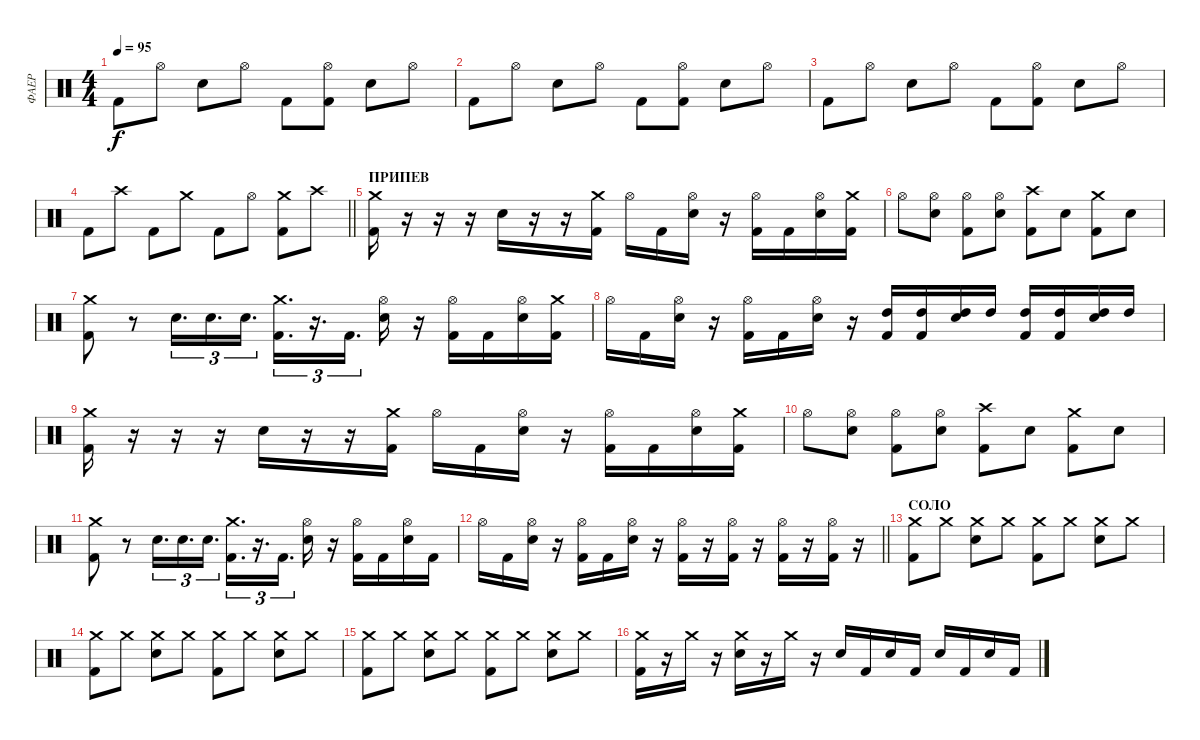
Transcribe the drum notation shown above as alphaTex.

\track ("ФАЕР" "ФАЕР") {instrument percussion}
\staff {score}
\articulation defaults
\ts (4 4)
\tempo 95
\clef neutral
\ks c "Kick (hit) 2".8{dy f} "Hi-Hat (open)".8 "Electric Snare (hit)".8 "Hi-Hat (open)".8 "Kick (hit) 2".8
("Hi-Hat (open)" "Kick (hit) 2").8 "Electric Snare (hit)".8 "Hi-Hat (open)".8 |
"Kick (hit) 2".8 "Hi-Hat (open)".8 "Electric Snare (hit)".8 "Hi-Hat (open)".8 "Kick (hit) 2".8 ("Hi-Hat (open)" "Kick (hit) 2").8 "Electric Snare (hit)".8 "Hi-Hat (open)".8 |
"Kick (hit) 2".8 "Hi-Hat (open)".8 "Electric Snare (hit)".8 "Hi-Hat (open)".8 "Kick (hit) 2".8 ("Hi-Hat (open)" "Kick (hit) 2").8 "Electric Snare (hit)".8 "Hi-Hat (open)".8 |
\barLineRight lightlight "Kick (hit) 2".8 "Crash high (hit)".8 "Kick (hit) 2".8 "Crash medium (hit)".8 "Kick (hit) 2".8 "Hi-Hat (open)".8
("Crash medium (hit)" "Kick (hit) 2").8 "Crash high (hit)".8 |
\section ("" "ПРИПЕВ")
("Crash medium (hit)" "Kick (hit) 2").16 r.16 r.16 r.16 "Electric Snare (hit)".16 r.16 r.16 ("Crash medium (hit)" "Kick (hit) 2").16 "Hi-Hat (open)".16 "Kick (hit) 2".16 ("Hi-Hat (open)" "Electric Snare (hit)").16 r.16 ("Hi-Hat (open)" "Kick (hit) 2").16 "Kick (hit) 2".16 ("Hi-Hat (open)" "Electric Snare (hit)").16 ("Crash medium (hit)" "Kick (hit) 2").16 |
"Hi-Hat (open)".8 ("Hi-Hat (open)" "Electric Snare (hit)").8 ("Hi-Hat (open)" "Kick (hit) 2").8 ("Hi-Hat (open)" "Electric Snare (hit)").8 ("Crash high (hit)" "Kick (hit) 2").8 "Electric Snare (hit)".8 ("Crash medium (hit)" "Kick (hit) 2").8 "Electric Snare (hit)".8 |
("Crash medium (hit)" "Kick (hit) 2").8 r.8 "Electric Snare (hit)".16{d tu (3 2)} "Electric Snare (hit)".16{d tu (3 2)} "Electric Snare (hit)".16{d tu (3 2)} ("Crash medium (hit)" "Kick (hit) 2").16{d tu (3 2)} r.16{d tu (3 2)} "Kick (hit) 2".16{d tu (3 2)} ("Hi-Hat (open)" "Electric Snare (hit)").16 r.16 ("Hi-Hat (open)" "Kick (hit) 2").16 "Kick (hit) 2".16 ("Hi-Hat (open)" "Electric Snare (hit)").16 ("Crash medium (hit)" "Kick (hit) 2").16 |
"Hi-Hat (open)".16 "Kick (hit) 2".16 ("Hi-Hat (open)" "Electric Snare (hit)").16 r.16 ("Hi-Hat (open)" "Kick (hit) 2").16 "Kick (hit) 2".16 ("Hi-Hat (open)" "Electric Snare (hit)").16 r.16 ("High Tom (hit)" "Kick (hit) 2").16 ("High Tom (hit)" "Kick (hit) 2").16 ("High Tom (hit)" "Electric Snare (hit)").16 "High Tom (hit)".16 ("High Tom (hit)" "Kick (hit) 2").16 ("High Tom (hit)" "Kick (hit) 2").16 ("High Tom (hit)" "Electric Snare (hit)").16 "High Tom (hit)".16 |
("Crash medium (hit)" "Kick (hit) 2").16 r.16 r.16 r.16 "Electric Snare (hit)".16 r.16 r.16 ("Crash medium (hit)" "Kick (hit) 2").16 "Hi-Hat (open)".16 "Kick (hit) 2".16 ("Hi-Hat (open)" "Electric Snare (hit)").16 r.16 ("Hi-Hat (open)" "Kick (hit) 2").16 "Kick (hit) 2".16 ("Hi-Hat (open)" "Electric Snare (hit)").16 ("Crash medium (hit)" "Kick (hit) 2").16 |
"Hi-Hat (open)".8 ("Hi-Hat (open)" "Electric Snare (hit)").8 ("Hi-Hat (open)" "Kick (hit) 2").8 ("Hi-Hat (open)" "Electric Snare (hit)").8 ("Crash high (hit)" "Kick (hit) 2").8 "Electric Snare (hit)".8 ("Crash medium (hit)" "Kick (hit) 2").8 "Electric Snare (hit)".8 |
("Crash medium (hit)" "Kick (hit) 2").8 r.8 "Electric Snare (hit)".16{d tu (3 2)} "Electric Snare (hit)".16{d tu (3 2)} "Electric Snare (hit)".16{d tu (3 2)} ("Crash medium (hit)" "Kick (hit) 2").16{d tu (3 2)} r.16{d tu (3 2)} "Kick (hit) 2".16{d tu (3 2)} ("Hi-Hat (open)" "Electric Snare (hit)").16 r.16 ("Hi-Hat (open)" "Kick (hit) 2").16 "Kick (hit) 2".16 ("Hi-Hat (open)" "Electric Snare (hit)").16 "Kick (hit) 2".16 |
\barLineRight lightlight "Hi-Hat (open)".16 "Kick (hit) 2".16
("Hi-Hat (open)" "Electric Snare (hit)").16 r.16 ("Hi-Hat (open)" "Kick (hit) 2").16 "Kick (hit) 2".16 ("Hi-Hat (open)" "Electric Snare (hit)").16 r.16 ("Hi-Hat (open)" "Kick (hit) 2").16 r.16 ("Hi-Hat (open)" "Kick (hit) 2").16 r.16 ("Hi-Hat (open)" "Kick (hit) 2").16 r.16 ("Hi-Hat (open)" "Kick (hit) 2").16 r.16 |
\section ("" "СОЛО")
("Crash medium (hit)" "Kick (hit) 2").8 "Crash medium (hit)".8 ("Crash medium (hit)" "Electric Snare (hit)").8 "Crash medium (hit)".8 ("Crash medium (hit)" "Kick (hit) 2").8 "Crash medium (hit)".8 ("Crash medium (hit)" "Electric Snare (hit)").8 "Crash medium (hit)".8 |
("Crash medium (hit)" "Kick (hit) 2").8 "Crash medium (hit)".8 ("Crash medium (hit)" "Electric Snare (hit)").8 "Crash medium (hit)".8 ("Crash medium (hit)" "Kick (hit) 2").8 "Crash medium (hit)".8 ("Crash medium (hit)" "Electric Snare (hit)").8 "Crash medium (hit)".8 |
("Crash medium (hit)" "Kick (hit) 2").8 "Crash medium (hit)".8 ("Crash medium (hit)" "Electric Snare (hit)").8 "Crash medium (hit)".8 ("Crash medium (hit)" "Kick (hit) 2").8 "Crash medium (hit)".8 ("Crash medium (hit)" "Electric Snare (hit)").8 "Crash medium (hit)".8 |
("Crash medium (hit)" "Kick (hit) 2").16 r.16 "Crash medium (hit)".16 r.16 ("Crash medium (hit)" "Electric Snare (hit)").16 r.16 "Crash medium (hit)".16 r.16 "Electric Snare (hit)".16 "Kick (hit) 2".16 "Electric Snare (hit)".16 "Kick (hit) 2".16 "Electric Snare (hit)".16 "Kick (hit) 2".16 "Electric Snare (hit)".16 "Kick (hit) 2".16
